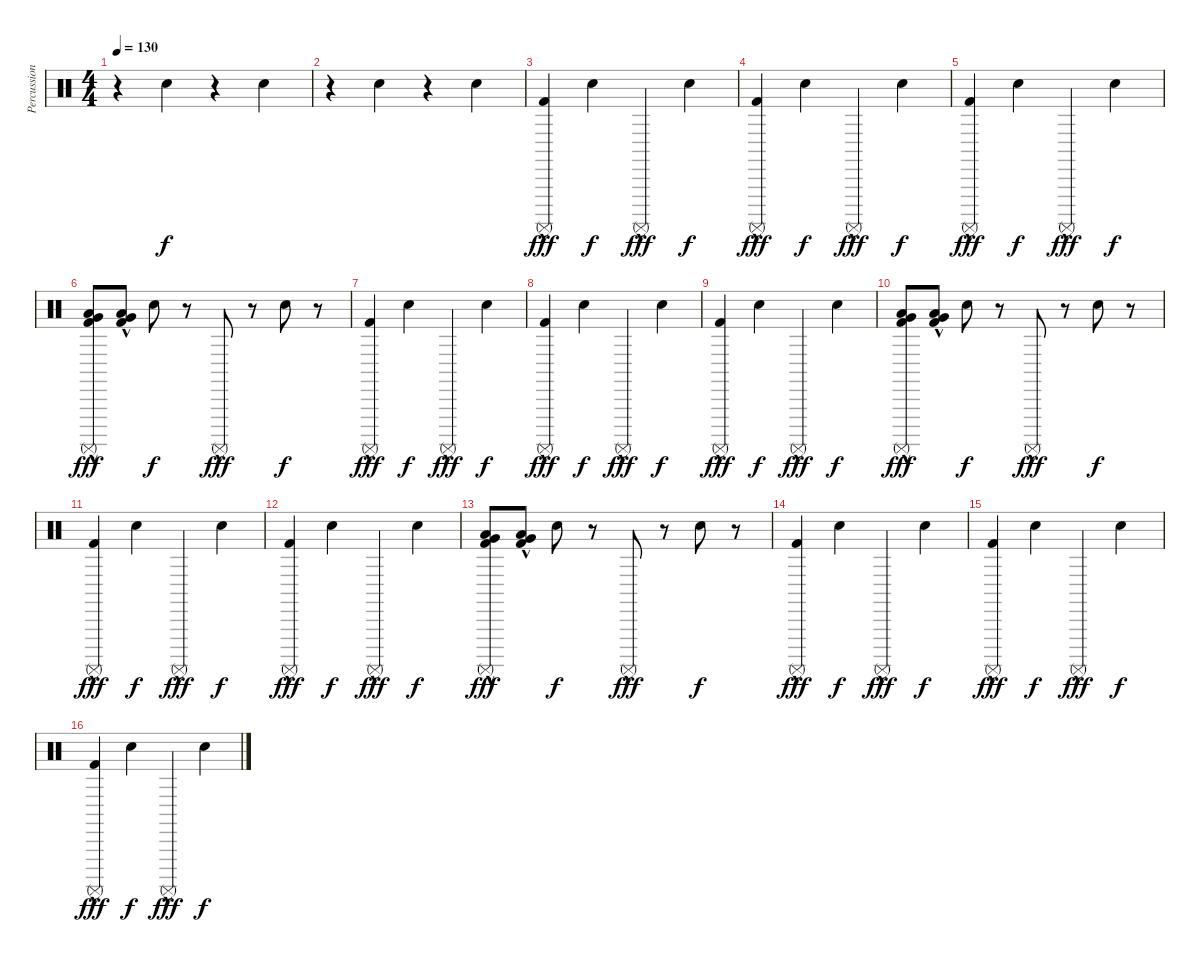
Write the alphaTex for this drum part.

\track ("Percussion" "Percussion") {instrument percussion}
\staff {score}
\articulation defaults
\ts (4 4)
\tempo 130
\clef neutral
\ks c
r.4{dy f} "Snare (hit) 2".4 r.4 "Snare (hit) 2".4 |
r.4 "Snare (hit) 2".4 r.4 "Snare (hit) 2".4 |
("Surdo (mute)"{hac} "Kick (hit) 2"{hac}).4{dy fff} "Snare (hit) 2".4{dy f} "Surdo (mute)"{hac}.4{dy fff} "Snare (hit) 2".4{dy f} |
("Surdo (mute)"{hac} "Kick (hit) 2"{hac}).4{dy fff} "Snare (hit) 2".4{dy f} "Surdo (mute)"{hac}.4{dy fff} "Snare (hit) 2".4{dy f} |
("Surdo (mute)"{hac} "Kick (hit) 2"{hac}).4{dy fff} "Snare (hit) 2".4{dy f} "Surdo (mute)"{hac}.4{dy fff} "Snare (hit) 2".4{dy f} |
("Surdo (mute)"{hac} "Low Floor Tom (hit)"{hac} "Very Low Tom (hit)"{hac} "Kick (hit) 2"{hac}).8{dy fff} ("Low Floor Tom (hit)"{hac} "Very Low Tom (hit)"{hac} "Kick (hit) 2"{hac}).8 "Snare (hit) 2".8{dy f} r.8 "Surdo (mute)"{hac}.8{dy fff} r.8 "Snare (hit) 2".8{dy f} r.8 |
("Surdo (mute)"{hac} "Kick (hit) 2"{hac}).4{dy fff} "Snare (hit) 2".4{dy f} "Surdo (mute)"{hac}.4{dy fff} "Snare (hit) 2".4{dy f} |
("Surdo (mute)"{hac} "Kick (hit) 2"{hac}).4{dy fff} "Snare (hit) 2".4{dy f} "Surdo (mute)"{hac}.4{dy fff} "Snare (hit) 2".4{dy f} |
("Surdo (mute)"{hac} "Kick (hit) 2"{hac}).4{dy fff} "Snare (hit) 2".4{dy f} "Surdo (mute)"{hac}.4{dy fff} "Snare (hit) 2".4{dy f} |
("Surdo (mute)"{hac} "Low Floor Tom (hit)"{hac} "Very Low Tom (hit)"{hac} "Kick (hit) 2"{hac}).8{dy fff} ("Low Floor Tom (hit)"{hac} "Very Low Tom (hit)"{hac} "Kick (hit) 2"{hac}).8 "Snare (hit) 2".8{dy f} r.8 "Surdo (mute)"{hac}.8{dy fff} r.8 "Snare (hit) 2".8{dy f} r.8 |
("Surdo (mute)"{hac} "Kick (hit) 2"{hac}).4{dy fff} "Snare (hit) 2".4{dy f} "Surdo (mute)"{hac}.4{dy fff} "Snare (hit) 2".4{dy f} |
("Surdo (mute)"{hac} "Kick (hit) 2"{hac}).4{dy fff} "Snare (hit) 2".4{dy f} "Surdo (mute)"{hac}.4{dy fff} "Snare (hit) 2".4{dy f} |
("Surdo (mute)"{hac} "Low Floor Tom (hit)"{hac} "Very Low Tom (hit)"{hac} "Kick (hit) 2"{hac}).8{dy fff} ("Low Floor Tom (hit)"{hac} "Very Low Tom (hit)"{hac} "Kick (hit) 2"{hac}).8 "Snare (hit) 2".8{dy f} r.8 "Surdo (mute)"{hac}.8{dy fff} r.8 "Snare (hit) 2".8{dy f} r.8 |
("Surdo (mute)"{hac} "Kick (hit) 2"{hac}).4{dy fff} "Snare (hit) 2".4{dy f} "Surdo (mute)"{hac}.4{dy fff} "Snare (hit) 2".4{dy f} |
("Surdo (mute)"{hac} "Kick (hit) 2"{hac}).4{dy fff} "Snare (hit) 2".4{dy f} "Surdo (mute)"{hac}.4{dy fff} "Snare (hit) 2".4{dy f} |
("Surdo (mute)"{hac} "Kick (hit) 2"{hac}).4{dy fff} "Snare (hit) 2".4{dy f} "Surdo (mute)"{hac}.4{dy fff} "Snare (hit) 2".4{dy f}
